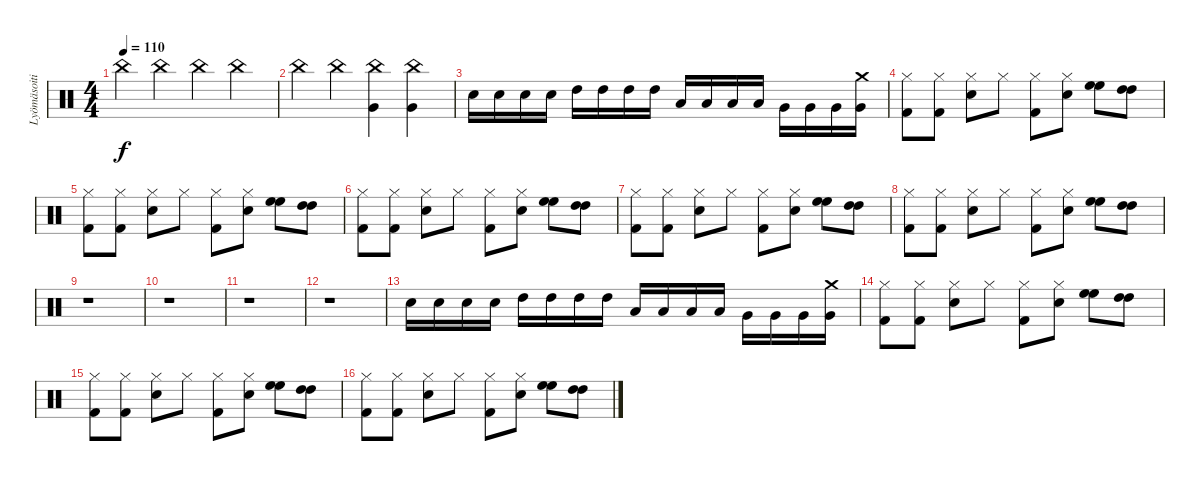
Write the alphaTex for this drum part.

\track ("Lyömäsoitin" "Lyömäsoiti") {instrument percussion}
\staff {score}
\articulation defaults
\ts (4 4)
\tempo 110
\clef neutral
\ks c "China (hit)".4{dy f} "China (hit)".4 "China (hit)".4 "China (hit)".4
|
"China (hit)".4 "China (hit)".4 ("China (hit)" "Very Low Tom (hit)").4 ("China (hit)" "Very Low Tom (hit)").4 |
"Snare (hit) 2".16 "Snare (hit) 2".16 "Snare (hit) 2".16 "Snare (hit) 2".16 "High Tom (hit)".16 "High Tom (hit)".16 "High Tom (hit)".16 "High Tom (hit)".16 "Low Tom (hit)".16 "Low Tom (hit)".16 "Low Tom (hit)".16 "Low Tom (hit)".16 "Very Low Tom (hit)".16 "Very Low Tom (hit)".16 "Very Low Tom (hit)".16 ("Very Low Tom (hit)" "Crash medium (hit)").16 |
("Hi-Hat (closed)" "Kick (hit) 2").8 ("Hi-Hat (closed)" "Kick (hit) 2").8 ("Hi-Hat (closed)" "Snare (hit) 2").8 "Hi-Hat (closed)".8 ("Hi-Hat (closed)" "Kick (hit) 2").8 ("Hi-Hat (closed)" "Snare (hit) 2").8 ("High Floor Tom (hit)" "High Floor Tom (hit)").8 ("High Tom (hit)" "High Tom (hit)").8 |
("Hi-Hat (closed)" "Kick (hit) 2").8 ("Hi-Hat (closed)" "Kick (hit) 2").8 ("Hi-Hat (closed)" "Snare (hit) 2").8 "Hi-Hat (closed)".8 ("Hi-Hat (closed)" "Kick (hit) 2").8 ("Hi-Hat (closed)" "Snare (hit) 2").8 ("High Floor Tom (hit)" "High Floor Tom (hit)").8 ("High Tom (hit)" "High Tom (hit)").8 |
("Hi-Hat (closed)" "Kick (hit) 2").8 ("Hi-Hat (closed)" "Kick (hit) 2").8 ("Hi-Hat (closed)" "Snare (hit) 2").8 "Hi-Hat (closed)".8 ("Hi-Hat (closed)" "Kick (hit) 2").8 ("Hi-Hat (closed)" "Snare (hit) 2").8 ("High Floor Tom (hit)" "High Floor Tom (hit)").8 ("High Tom (hit)" "High Tom (hit)").8 |
("Hi-Hat (closed)" "Kick (hit) 2").8 ("Hi-Hat (closed)" "Kick (hit) 2").8 ("Hi-Hat (closed)" "Snare (hit) 2").8 "Hi-Hat (closed)".8 ("Hi-Hat (closed)" "Kick (hit) 2").8 ("Hi-Hat (closed)" "Snare (hit) 2").8 ("High Floor Tom (hit)" "High Floor Tom (hit)").8 ("High Tom (hit)" "High Tom (hit)").8 |
("Hi-Hat (closed)" "Kick (hit) 2").8 ("Hi-Hat (closed)" "Kick (hit) 2").8 ("Hi-Hat (closed)" "Snare (hit) 2").8 "Hi-Hat (closed)".8 ("Hi-Hat (closed)" "Kick (hit) 2").8 ("Hi-Hat (closed)" "Snare (hit) 2").8 ("High Floor Tom (hit)" "High Floor Tom (hit)").8 ("High Tom (hit)" "High Tom (hit)").8 |
r.1 |
r.1 |
r.1 |
r.1 |
"Snare (hit) 2".16 "Snare (hit) 2".16 "Snare (hit) 2".16 "Snare (hit) 2".16 "High Tom (hit)".16 "High Tom (hit)".16 "High Tom (hit)".16 "High Tom (hit)".16 "Low Tom (hit)".16 "Low Tom (hit)".16 "Low Tom (hit)".16 "Low Tom (hit)".16 "Very Low Tom (hit)".16 "Very Low Tom (hit)".16 "Very Low Tom (hit)".16 ("Very Low Tom (hit)" "Crash medium (hit)").16 |
("Hi-Hat (closed)" "Kick (hit) 2").8 ("Hi-Hat (closed)" "Kick (hit) 2").8 ("Hi-Hat (closed)" "Snare (hit) 2").8 "Hi-Hat (closed)".8 ("Hi-Hat (closed)" "Kick (hit) 2").8 ("Hi-Hat (closed)" "Snare (hit) 2").8 ("High Floor Tom (hit)" "High Floor Tom (hit)").8 ("High Tom (hit)" "High Tom (hit)").8 |
("Hi-Hat (closed)" "Kick (hit) 2").8 ("Hi-Hat (closed)" "Kick (hit) 2").8 ("Hi-Hat (closed)" "Snare (hit) 2").8 "Hi-Hat (closed)".8 ("Hi-Hat (closed)" "Kick (hit) 2").8 ("Hi-Hat (closed)" "Snare (hit) 2").8 ("High Floor Tom (hit)" "High Floor Tom (hit)").8 ("High Tom (hit)" "High Tom (hit)").8 |
("Hi-Hat (closed)" "Kick (hit) 2").8 ("Hi-Hat (closed)" "Kick (hit) 2").8 ("Hi-Hat (closed)" "Snare (hit) 2").8 "Hi-Hat (closed)".8 ("Hi-Hat (closed)" "Kick (hit) 2").8 ("Hi-Hat (closed)" "Snare (hit) 2").8 ("High Floor Tom (hit)" "High Floor Tom (hit)").8 ("High Tom (hit)" "High Tom (hit)").8
